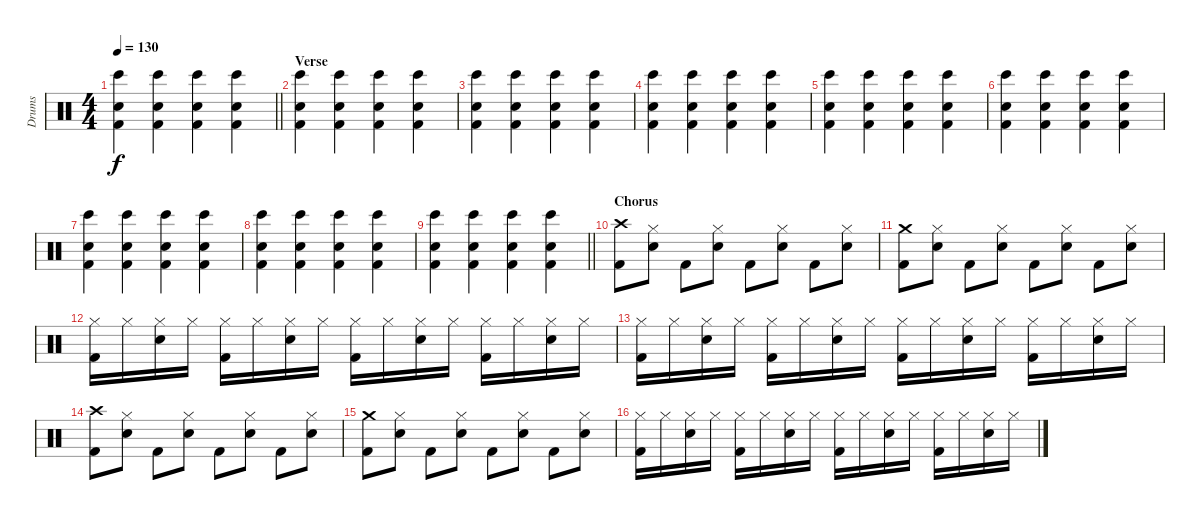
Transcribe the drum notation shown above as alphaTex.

\track ("Drums" "Drums") {instrument percussion}
\staff {score}
\articulation defaults
\ts (4 4)
\tempo 130
\clef neutral
\barLineRight lightlight
\ks c
("Electric Snare (hit)" "Kick (hit) 2" "Bongo High (hit)").4{dy f} ("Electric Snare (hit)" "Kick (hit) 2" "Bongo High (hit)").4 ("Electric Snare (hit)" "Kick (hit) 2" "Bongo High (hit)").4 ("Electric Snare (hit)" "Kick (hit) 2" "Bongo High (hit)").4 |
\section ("" "Verse")
("Electric Snare (hit)" "Kick (hit) 2" "Bongo High (hit)").4 ("Electric Snare (hit)" "Kick (hit) 2" "Bongo High (hit)").4 ("Electric Snare (hit)" "Kick (hit) 2" "Bongo High (hit)").4 ("Electric Snare (hit)" "Kick (hit) 2" "Bongo High (hit)").4 |
("Electric Snare (hit)" "Kick (hit) 2" "Bongo High (hit)").4 ("Electric Snare (hit)" "Kick (hit) 2" "Bongo High (hit)").4 ("Electric Snare (hit)" "Kick (hit) 2" "Bongo High (hit)").4 ("Electric Snare (hit)" "Kick (hit) 2" "Bongo High (hit)").4 |
("Electric Snare (hit)" "Kick (hit) 2" "Bongo High (hit)").4 ("Electric Snare (hit)" "Kick (hit) 2" "Bongo High (hit)").4 ("Electric Snare (hit)" "Kick (hit) 2" "Bongo High (hit)").4 ("Electric Snare (hit)" "Kick (hit) 2" "Bongo High (hit)").4 |
("Electric Snare (hit)" "Kick (hit) 2" "Bongo High (hit)").4 ("Electric Snare (hit)" "Kick (hit) 2" "Bongo High (hit)").4 ("Electric Snare (hit)" "Kick (hit) 2" "Bongo High (hit)").4 ("Electric Snare (hit)" "Kick (hit) 2" "Bongo High (hit)").4 |
("Electric Snare (hit)" "Kick (hit) 2" "Bongo High (hit)").4 ("Electric Snare (hit)" "Kick (hit) 2" "Bongo High (hit)").4 ("Electric Snare (hit)" "Kick (hit) 2" "Bongo High (hit)").4 ("Electric Snare (hit)" "Kick (hit) 2" "Bongo High (hit)").4 |
("Electric Snare (hit)" "Kick (hit) 2" "Bongo High (hit)").4 ("Electric Snare (hit)" "Kick (hit) 2" "Bongo High (hit)").4 ("Electric Snare (hit)" "Kick (hit) 2" "Bongo High (hit)").4 ("Electric Snare (hit)" "Kick (hit) 2" "Bongo High (hit)").4 |
("Electric Snare (hit)" "Kick (hit) 2" "Bongo High (hit)").4 ("Electric Snare (hit)" "Kick (hit) 2" "Bongo High (hit)").4 ("Electric Snare (hit)" "Kick (hit) 2" "Bongo High (hit)").4 ("Electric Snare (hit)" "Kick (hit) 2" "Bongo High (hit)").4 |
\barLineRight lightlight
("Electric Snare (hit)" "Kick (hit) 2" "Bongo High (hit)").4 ("Electric Snare (hit)" "Kick (hit) 2" "Bongo High (hit)").4 ("Electric Snare (hit)" "Kick (hit) 2" "Bongo High (hit)").4 ("Electric Snare (hit)" "Kick (hit) 2" "Bongo High (hit)").4 |
\section ("" "Chorus")
("Crash high (hit)" "Kick (hit) 2").8 ("Electric Snare (hit)" "Hi-Hat (closed)").8 "Kick (hit) 2".8 ("Electric Snare (hit)" "Hi-Hat (closed)").8 "Kick (hit) 2".8 ("Electric Snare (hit)" "Hi-Hat (closed)").8 "Kick (hit) 2".8 ("Electric Snare (hit)" "Hi-Hat (closed)").8 |
("Crash medium (hit)" "Kick (hit) 2").8 ("Electric Snare (hit)" "Hi-Hat (closed)").8 "Kick (hit) 2".8 ("Electric Snare (hit)" "Hi-Hat (closed)").8 "Kick (hit) 2".8 ("Electric Snare (hit)" "Hi-Hat (closed)").8 "Kick (hit) 2".8 ("Electric Snare (hit)" "Hi-Hat (closed)").8 |
("Hi-Hat (closed)" "Kick (hit) 2").16 "Hi-Hat (closed)".16 ("Hi-Hat (closed)" "Electric Snare (hit)").16 "Hi-Hat (closed)".16 ("Hi-Hat (closed)" "Kick (hit) 2").16 "Hi-Hat (closed)".16 ("Hi-Hat (closed)" "Electric Snare (hit)").16 "Hi-Hat (closed)".16 ("Hi-Hat (closed)" "Kick (hit) 2").16 "Hi-Hat (closed)".16 ("Hi-Hat (closed)" "Electric Snare (hit)").16 "Hi-Hat (closed)".16 ("Hi-Hat (closed)" "Kick (hit) 2").16 "Hi-Hat (closed)".16 ("Hi-Hat (closed)" "Electric Snare (hit)").16 "Hi-Hat (closed)".16 |
("Hi-Hat (closed)" "Kick (hit) 2").16 "Hi-Hat (closed)".16 ("Hi-Hat (closed)" "Electric Snare (hit)").16 "Hi-Hat (closed)".16 ("Hi-Hat (closed)" "Kick (hit) 2").16 "Hi-Hat (closed)".16 ("Hi-Hat (closed)" "Electric Snare (hit)").16 "Hi-Hat (closed)".16 ("Hi-Hat (closed)" "Kick (hit) 2").16 "Hi-Hat (closed)".16 ("Hi-Hat (closed)" "Electric Snare (hit)").16 "Hi-Hat (closed)".16 ("Hi-Hat (closed)" "Kick (hit) 2").16 "Hi-Hat (closed)".16 ("Hi-Hat (closed)" "Electric Snare (hit)").16 "Hi-Hat (closed)".16 |
("Crash high (hit)" "Kick (hit) 2").8 ("Electric Snare (hit)" "Hi-Hat (closed)").8 "Kick (hit) 2".8 ("Electric Snare (hit)" "Hi-Hat (closed)").8 "Kick (hit) 2".8 ("Electric Snare (hit)" "Hi-Hat (closed)").8 "Kick (hit) 2".8 ("Electric Snare (hit)" "Hi-Hat (closed)").8 |
("Crash medium (hit)" "Kick (hit) 2").8 ("Electric Snare (hit)" "Hi-Hat (closed)").8 "Kick (hit) 2".8 ("Electric Snare (hit)" "Hi-Hat (closed)").8 "Kick (hit) 2".8 ("Electric Snare (hit)" "Hi-Hat (closed)").8 "Kick (hit) 2".8 ("Electric Snare (hit)" "Hi-Hat (closed)").8 |
("Hi-Hat (closed)" "Kick (hit) 2").16 "Hi-Hat (closed)".16 ("Hi-Hat (closed)" "Electric Snare (hit)").16 "Hi-Hat (closed)".16 ("Hi-Hat (closed)" "Kick (hit) 2").16 "Hi-Hat (closed)".16 ("Hi-Hat (closed)" "Electric Snare (hit)").16 "Hi-Hat (closed)".16 ("Hi-Hat (closed)" "Kick (hit) 2").16 "Hi-Hat (closed)".16 ("Hi-Hat (closed)" "Electric Snare (hit)").16 "Hi-Hat (closed)".16 ("Hi-Hat (closed)" "Kick (hit) 2").16 "Hi-Hat (closed)".16 ("Hi-Hat (closed)" "Electric Snare (hit)").16 "Hi-Hat (closed)".16
